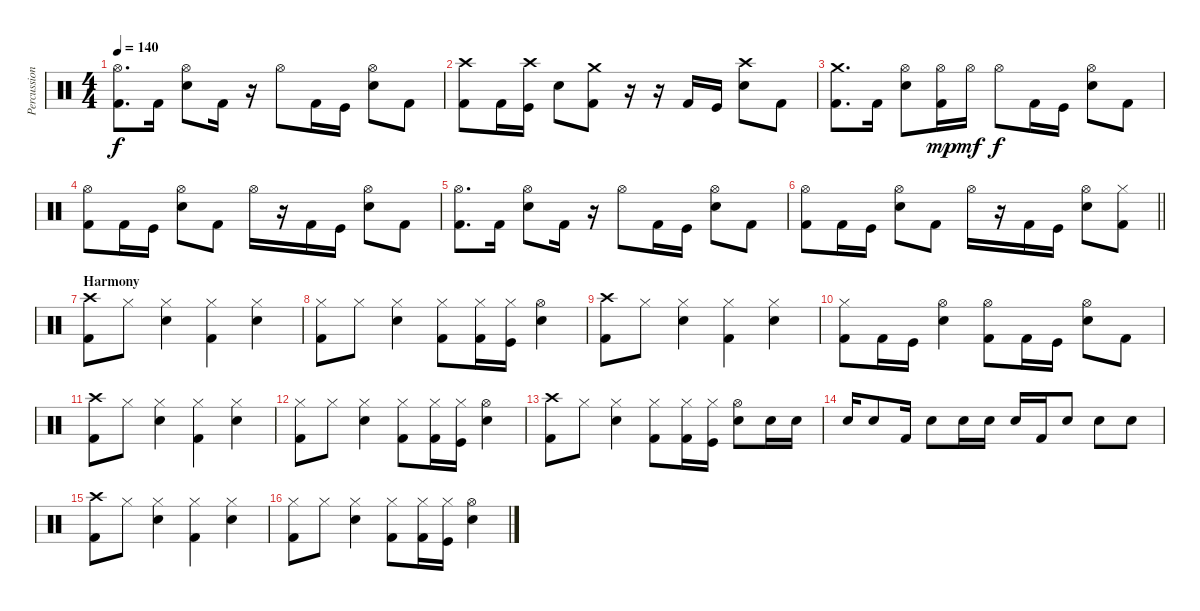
\track ("Percussion" "Percussion") {instrument percussion}
\staff {score}
\articulation defaults
\ts (4 4)
\tempo 140
\clef neutral
\ks c
("Hi-Hat (open)" "Kick (hit) 2").8{d dy f} "Kick (hit) 2".16 ("Hi-Hat (open)" "Snare (hit) 2").8 "Kick (hit) 2".16 r.16 "Hi-Hat (open)".8 "Kick (hit) 2".16 "Kick (hit)".16 ("Hi-Hat (open)" "Snare (hit) 2").8 "Kick (hit) 2".8 |
("Crash high (hit)" "Kick (hit) 2").8 "Kick (hit) 2".16 ("Crash high (hit)" "Kick (hit)").16 "Snare (hit) 2".8 ("Crash medium (hit)" "Kick (hit) 2").8 r.16 r.16 "Kick (hit) 2".16 "Kick (hit)".16 ("Crash high (hit)" "Snare (hit) 2").8 "Kick (hit) 2".8 |
("Crash medium (hit)" "Kick (hit) 2").8{d} "Kick (hit) 2".16 ("Hi-Hat (open)" "Snare (hit) 2").8 ("Hi-Hat (open)" "Kick (hit) 2").16{dy mp} "Hi-Hat (open)".16{dy mf} "Hi-Hat (open)".8{dy f} "Kick (hit) 2".16 "Kick (hit)".16 ("Hi-Hat (open)" "Snare (hit) 2").8 "Kick (hit) 2".8 |
("Hi-Hat (open)" "Kick (hit) 2").8 "Kick (hit) 2".16 "Kick (hit)".16 ("Hi-Hat (open)" "Snare (hit) 2").8 "Kick (hit) 2".8 "Hi-Hat (open)".16 r.16 "Kick (hit) 2".16 "Kick (hit)".16 ("Hi-Hat (open)" "Snare (hit) 2").8 "Kick (hit) 2".8 |
("Hi-Hat (open)" "Kick (hit) 2").8{d} "Kick (hit) 2".16 ("Hi-Hat (open)" "Snare (hit) 2").8 "Kick (hit) 2".16 r.16 "Hi-Hat (open)".8 "Kick (hit) 2".16 "Kick (hit)".16 ("Hi-Hat (open)" "Snare (hit) 2").8 "Kick (hit) 2".8 |
\barLineRight lightlight
("Hi-Hat (open)" "Kick (hit) 2").8 "Kick (hit) 2".16 "Kick (hit)".16 ("Hi-Hat (open)" "Snare (hit) 2").8 "Kick (hit) 2".8 "Hi-Hat (open)".16 r.16 "Kick (hit) 2".16 "Kick (hit)".16 ("Hi-Hat (open)" "Snare (hit) 2").8 ("Hi-Hat (closed)" "Kick (hit) 2").8 |
\section ("" "Harmony")
("Crash high (hit)" "Kick (hit) 2").8 "Hi-Hat (closed)".8 ("Hi-Hat (closed)" "Snare (hit) 2").4 ("Hi-Hat (closed)" "Kick (hit) 2").4 ("Hi-Hat (closed)" "Snare (hit) 2").4 |
("Hi-Hat (closed)" "Kick (hit) 2").8 "Hi-Hat (closed)".8 ("Hi-Hat (closed)" "Snare (hit) 2").4 ("Hi-Hat (closed)" "Kick (hit) 2").8 ("Hi-Hat (closed)" "Kick (hit) 2").16 ("Hi-Hat (closed)" "Kick (hit)").16 ("Hi-Hat (open)" "Snare (hit) 2").4 |
("Crash high (hit)" "Kick (hit) 2").8 "Hi-Hat (closed)".8 ("Hi-Hat (closed)" "Snare (hit) 2").4 ("Hi-Hat (closed)" "Kick (hit) 2").4 ("Hi-Hat (closed)" "Snare (hit) 2").4 |
("Hi-Hat (closed)" "Kick (hit) 2").8 "Kick (hit) 2".16 "Kick (hit)".16 ("Hi-Hat (open)" "Snare (hit) 2").4 ("Hi-Hat (open)" "Kick (hit) 2").8 "Kick (hit) 2".16 "Kick (hit)".16 ("Hi-Hat (open)" "Snare (hit) 2").8 "Kick (hit) 2".8 |
("Crash high (hit)" "Kick (hit) 2").8 "Hi-Hat (closed)".8 ("Hi-Hat (closed)" "Snare (hit) 2").4 ("Hi-Hat (closed)" "Kick (hit) 2").4 ("Hi-Hat (closed)" "Snare (hit) 2").4 |
("Hi-Hat (closed)" "Kick (hit) 2").8 "Hi-Hat (closed)".8 ("Hi-Hat (closed)" "Snare (hit) 2").4 ("Hi-Hat (closed)" "Kick (hit) 2").8 ("Hi-Hat (closed)" "Kick (hit) 2").16 ("Hi-Hat (closed)" "Kick (hit)").16 ("Hi-Hat (open)" "Snare (hit) 2").4 |
("Crash high (hit)" "Kick (hit) 2").8 "Hi-Hat (closed)".8 ("Hi-Hat (closed)" "Snare (hit) 2").4 ("Hi-Hat (closed)" "Kick (hit) 2").8 ("Hi-Hat (closed)" "Kick (hit) 2").16 ("Hi-Hat (closed)" "Kick (hit)").16 ("Hi-Hat (open)" "Snare (hit) 2").8 "Snare (hit) 2".16 "Snare (hit) 2".16 |
"Snare (hit) 2".16 "Snare (hit) 2".8 "Kick (hit) 2".16 "Snare (hit) 2".8 "Snare (hit) 2".16 "Snare (hit) 2".16 "Snare (hit) 2".16 "Kick (hit) 2".16 "Snare (hit) 2".8 "Snare (hit) 2".8 "Snare (hit) 2".8 |
("Crash high (hit)" "Kick (hit) 2").8 "Hi-Hat (closed)".8 ("Hi-Hat (closed)" "Snare (hit) 2").4 ("Hi-Hat (closed)" "Kick (hit) 2").4 ("Hi-Hat (closed)" "Snare (hit) 2").4 |
("Hi-Hat (closed)" "Kick (hit) 2").8 "Hi-Hat (closed)".8 ("Hi-Hat (closed)" "Snare (hit) 2").4 ("Hi-Hat (closed)" "Kick (hit) 2").8 ("Hi-Hat (closed)" "Kick (hit) 2").16 ("Hi-Hat (closed)" "Kick (hit)").16 ("Hi-Hat (open)" "Snare (hit) 2").4
